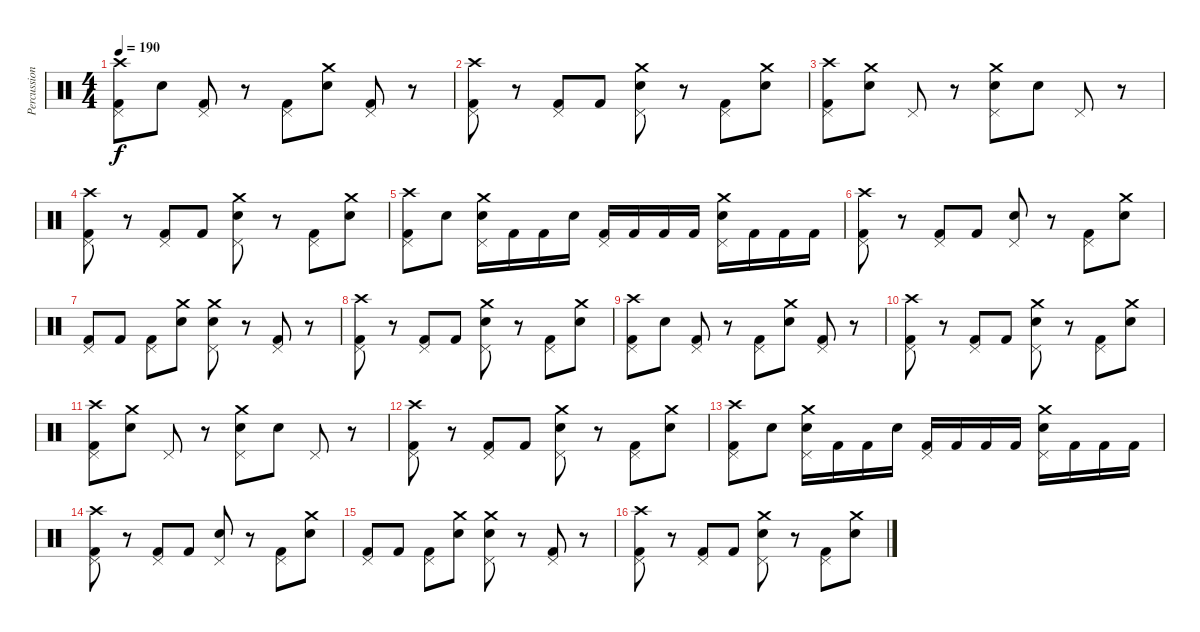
\track ("Percussion" "Percussion") {instrument percussion}
\staff {score}
\articulation defaults
\ts (4 4)
\tempo 190
\clef neutral
\ks c
("Crash high (hit)" "Pedal Hi-Hat (hit)" "Kick (hit) 2").8{dy f} "Snare (hit) 2".8 ("Pedal Hi-Hat (hit)" "Kick (hit) 2").8 r.8 ("Pedal Hi-Hat (hit)" "Kick (hit) 2").8 ("Crash medium (hit)" "Snare (hit) 2").8 ("Pedal Hi-Hat (hit)" "Kick (hit) 2").8 r.8 |
("Crash high (hit)" "Pedal Hi-Hat (hit)" "Kick (hit) 2").8 r.8 ("Pedal Hi-Hat (hit)" "Kick (hit) 2").8 "Kick (hit) 2".8 ("Crash medium (hit)" "Pedal Hi-Hat (hit)" "Snare (hit) 2").8 r.8 ("Pedal Hi-Hat (hit)" "Kick (hit) 2").8 ("Crash medium (hit)" "Snare (hit) 2").8 |
("Crash high (hit)" "Pedal Hi-Hat (hit)" "Kick (hit) 2").8 ("Crash medium (hit)" "Snare (hit) 2").8 "Pedal Hi-Hat (hit)".8 r.8 ("Crash medium (hit)" "Pedal Hi-Hat (hit)" "Snare (hit) 2").8 "Snare (hit) 2".8 "Pedal Hi-Hat (hit)".8 r.8 |
("Crash high (hit)" "Pedal Hi-Hat (hit)" "Kick (hit) 2").8 r.8 ("Pedal Hi-Hat (hit)" "Kick (hit) 2").8 "Kick (hit) 2".8 ("Crash medium (hit)" "Pedal Hi-Hat (hit)" "Snare (hit) 2").8 r.8 ("Pedal Hi-Hat (hit)" "Kick (hit) 2").8 ("Crash medium (hit)" "Snare (hit) 2").8 |
("Crash high (hit)" "Pedal Hi-Hat (hit)" "Kick (hit) 2").8 "Snare (hit) 2".8 ("Crash medium (hit)" "Pedal Hi-Hat (hit)" "Snare (hit) 2").16 "Kick (hit) 2".16 "Kick (hit) 2".16 "Snare (hit) 2".16 ("Pedal Hi-Hat (hit)" "Kick (hit) 2").16 "Kick (hit) 2".16 "Kick (hit) 2".16 "Kick (hit) 2".16 ("Crash medium (hit)" "Pedal Hi-Hat (hit)" "Snare (hit) 2").16 "Kick (hit) 2".16 "Kick (hit) 2".16 "Kick (hit) 2".16 |
("Crash high (hit)" "Pedal Hi-Hat (hit)" "Kick (hit) 2").8 r.8 ("Pedal Hi-Hat (hit)" "Kick (hit) 2").8 "Kick (hit) 2".8 ("Pedal Hi-Hat (hit)" "Snare (hit) 2").8 r.8 ("Pedal Hi-Hat (hit)" "Kick (hit) 2").8 ("Crash medium (hit)" "Snare (hit) 2").8 |
("Pedal Hi-Hat (hit)" "Kick (hit) 2").8 "Kick (hit) 2".8 ("Pedal Hi-Hat (hit)" "Kick (hit) 2").8 ("Crash medium (hit)" "Snare (hit) 2").8 ("Crash medium (hit)" "Pedal Hi-Hat (hit)" "Snare (hit) 2").8 r.8 ("Pedal Hi-Hat (hit)" "Kick (hit) 2").8 r.8 |
("Crash high (hit)" "Pedal Hi-Hat (hit)" "Kick (hit) 2").8 r.8 ("Pedal Hi-Hat (hit)" "Kick (hit) 2").8 "Kick (hit) 2".8 ("Crash medium (hit)" "Pedal Hi-Hat (hit)" "Snare (hit) 2").8 r.8 ("Pedal Hi-Hat (hit)" "Kick (hit) 2").8 ("Crash medium (hit)" "Snare (hit) 2").8 |
("Crash high (hit)" "Pedal Hi-Hat (hit)" "Kick (hit) 2").8 "Snare (hit) 2".8 ("Pedal Hi-Hat (hit)" "Kick (hit) 2").8 r.8 ("Pedal Hi-Hat (hit)" "Kick (hit) 2").8 ("Crash medium (hit)" "Snare (hit) 2").8 ("Pedal Hi-Hat (hit)" "Kick (hit) 2").8 r.8 |
("Crash high (hit)" "Pedal Hi-Hat (hit)" "Kick (hit) 2").8 r.8 ("Pedal Hi-Hat (hit)" "Kick (hit) 2").8 "Kick (hit) 2".8 ("Crash medium (hit)" "Pedal Hi-Hat (hit)" "Snare (hit) 2").8 r.8 ("Pedal Hi-Hat (hit)" "Kick (hit) 2").8 ("Crash medium (hit)" "Snare (hit) 2").8 |
("Crash high (hit)" "Pedal Hi-Hat (hit)" "Kick (hit) 2").8 ("Crash medium (hit)" "Snare (hit) 2").8 "Pedal Hi-Hat (hit)".8 r.8 ("Crash medium (hit)" "Pedal Hi-Hat (hit)" "Snare (hit) 2").8 "Snare (hit) 2".8 "Pedal Hi-Hat (hit)".8 r.8 |
("Crash high (hit)" "Pedal Hi-Hat (hit)" "Kick (hit) 2").8 r.8 ("Pedal Hi-Hat (hit)" "Kick (hit) 2").8 "Kick (hit) 2".8 ("Crash medium (hit)" "Pedal Hi-Hat (hit)" "Snare (hit) 2").8 r.8 ("Pedal Hi-Hat (hit)" "Kick (hit) 2").8 ("Crash medium (hit)" "Snare (hit) 2").8 |
("Crash high (hit)" "Pedal Hi-Hat (hit)" "Kick (hit) 2").8 "Snare (hit) 2".8 ("Crash medium (hit)" "Pedal Hi-Hat (hit)" "Snare (hit) 2").16 "Kick (hit) 2".16 "Kick (hit) 2".16 "Snare (hit) 2".16 ("Pedal Hi-Hat (hit)" "Kick (hit) 2").16 "Kick (hit) 2".16 "Kick (hit) 2".16 "Kick (hit) 2".16 ("Crash medium (hit)" "Pedal Hi-Hat (hit)" "Snare (hit) 2").16 "Kick (hit) 2".16 "Kick (hit) 2".16 "Kick (hit) 2".16 |
("Crash high (hit)" "Pedal Hi-Hat (hit)" "Kick (hit) 2").8 r.8 ("Pedal Hi-Hat (hit)" "Kick (hit) 2").8 "Kick (hit) 2".8 ("Pedal Hi-Hat (hit)" "Snare (hit) 2").8 r.8 ("Pedal Hi-Hat (hit)" "Kick (hit) 2").8 ("Crash medium (hit)" "Snare (hit) 2").8 |
("Pedal Hi-Hat (hit)" "Kick (hit) 2").8 "Kick (hit) 2".8 ("Pedal Hi-Hat (hit)" "Kick (hit) 2").8 ("Crash medium (hit)" "Snare (hit) 2").8 ("Crash medium (hit)" "Pedal Hi-Hat (hit)" "Snare (hit) 2").8 r.8 ("Pedal Hi-Hat (hit)" "Kick (hit) 2").8 r.8 |
("Crash high (hit)" "Pedal Hi-Hat (hit)" "Kick (hit) 2").8 r.8 ("Pedal Hi-Hat (hit)" "Kick (hit) 2").8 "Kick (hit) 2".8 ("Crash medium (hit)" "Pedal Hi-Hat (hit)" "Snare (hit) 2").8 r.8 ("Pedal Hi-Hat (hit)" "Kick (hit) 2").8 ("Crash medium (hit)" "Snare (hit) 2").8
